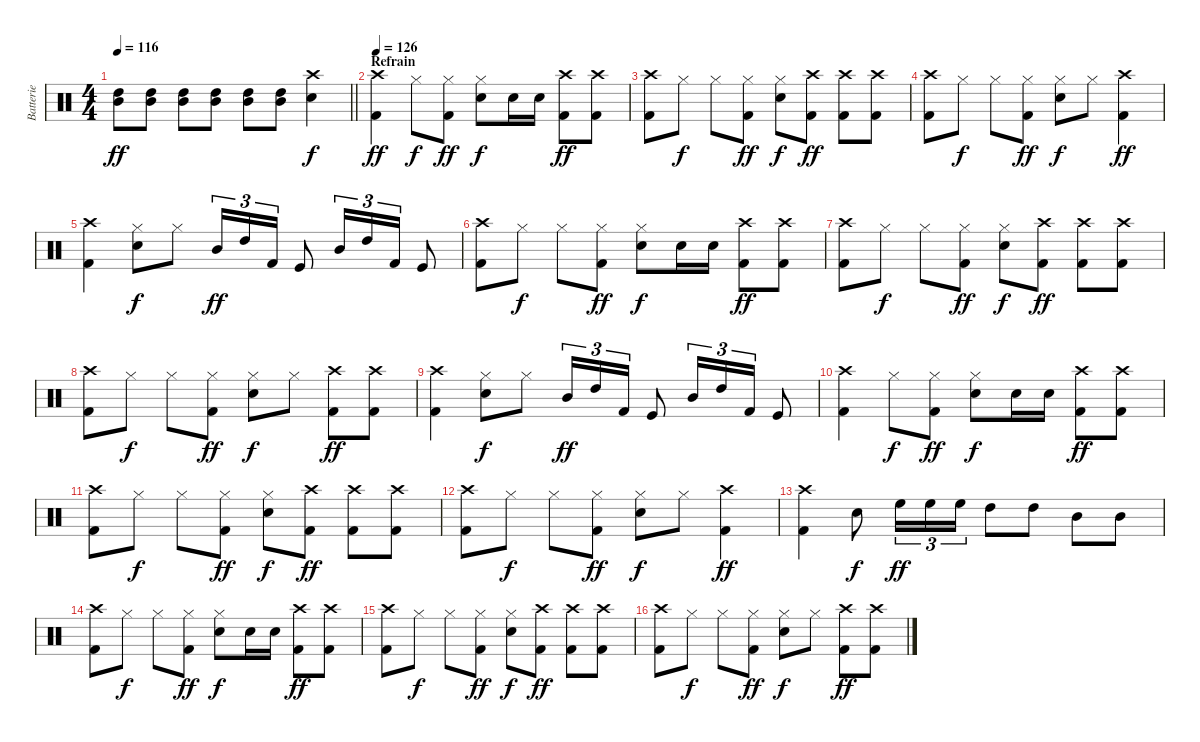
\track ("Batterie" "Batterie") {instrument percussion}
\staff {score}
\articulation defaults
\ts (4 4)
\tempo 116
\clef neutral
\barLineRight lightlight
\ks c
("Mid Tom (hit)" "High Tom (hit)").8{dy ff} ("Mid Tom (hit)" "High Tom (hit)").8 ("Mid Tom (hit)" "High Tom (hit)").8 ("Mid Tom (hit)" "High Tom (hit)").8 ("Mid Tom (hit)" "High Tom (hit)").8 ("Mid Tom (hit)" "High Tom (hit)").8 ("Crash high (hit)" "Snare (hit) 2").4{dy f} |
\section ("" "Refrain")
\tempo 126
("Crash high (hit)" "Kick (hit) 2").4{dy ff} "Hi-Hat (closed)".8{dy f} ("Hi-Hat (closed)" "Kick (hit) 2").8{dy ff} ("Hi-Hat (closed)" "Snare (hit) 2").8{dy f} "Snare (hit) 2".16 "Snare (hit) 2".16 ("Crash high (hit)" "Kick (hit) 2").8{dy ff} ("Crash high (hit)" "Kick (hit) 2").8 |
("Crash high (hit)" "Kick (hit) 2").8 "Hi-Hat (closed)".8{dy f} "Hi-Hat (closed)".8 ("Hi-Hat (closed)" "Kick (hit) 2").8{dy ff} ("Hi-Hat (closed)" "Snare (hit) 2").8{dy f} ("Crash high (hit)" "Kick (hit) 2").8{dy ff} ("Crash high (hit)" "Kick (hit) 2").8 ("Crash high (hit)" "Kick (hit) 2").8 |
("Crash high (hit)" "Kick (hit) 2").8 "Hi-Hat (closed)".8{dy f} "Hi-Hat (closed)".8 ("Hi-Hat (closed)" "Kick (hit) 2").8{dy ff} ("Hi-Hat (closed)" "Snare (hit) 2").8{dy f} "Hi-Hat (closed)".8 ("Crash high (hit)" "Kick (hit) 2").4{dy ff} |
("Crash high (hit)" "Kick (hit) 2").4 ("Hi-Hat (closed)" "Snare (hit) 2").8{dy f} "Hi-Hat (closed)".8 "Mid Tom (hit)".16{tu (3 2) dy ff} "High Tom (hit)".16{tu (3 2)} "Kick (hit) 2".16{tu (3 2)} "Kick (hit)".8 "Mid Tom (hit)".16{tu (3 2)} "High Tom (hit)".16{tu (3 2)} "Kick (hit) 2".16{tu (3 2)} "Kick (hit)".8 |
("Crash high (hit)" "Kick (hit) 2").8 "Hi-Hat (closed)".8{dy f} "Hi-Hat (closed)".8 ("Hi-Hat (closed)" "Kick (hit) 2").8{dy ff} ("Hi-Hat (closed)" "Snare (hit) 2").8{dy f} "Snare (hit) 2".16 "Snare (hit) 2".16 ("Crash high (hit)" "Kick (hit) 2").8{dy ff} ("Crash high (hit)" "Kick (hit) 2").8 |
("Crash high (hit)" "Kick (hit) 2").8 "Hi-Hat (closed)".8{dy f} "Hi-Hat (closed)".8 ("Hi-Hat (closed)" "Kick (hit) 2").8{dy ff} ("Hi-Hat (closed)" "Snare (hit) 2").8{dy f} ("Crash high (hit)" "Kick (hit) 2").8{dy ff} ("Crash high (hit)" "Kick (hit) 2").8 ("Crash high (hit)" "Kick (hit) 2").8 |
("Crash high (hit)" "Kick (hit) 2").8 "Hi-Hat (closed)".8{dy f} "Hi-Hat (closed)".8 ("Hi-Hat (closed)" "Kick (hit) 2").8{dy ff} ("Hi-Hat (closed)" "Snare (hit) 2").8{dy f} "Hi-Hat (closed)".8 ("Crash high (hit)" "Kick (hit) 2").8{dy ff} ("Crash high (hit)" "Kick (hit) 2").8 |
("Crash high (hit)" "Kick (hit) 2").4 ("Hi-Hat (closed)" "Snare (hit) 2").8{dy f} "Hi-Hat (closed)".8 "Mid Tom (hit)".16{tu (3 2) dy ff} "High Tom (hit)".16{tu (3 2)} "Kick (hit) 2".16{tu (3 2)} "Kick (hit)".8 "Mid Tom (hit)".16{tu (3 2)} "High Tom (hit)".16{tu (3 2)} "Kick (hit) 2".16{tu (3 2)} "Kick (hit)".8 |
("Crash high (hit)" "Kick (hit) 2").4 "Hi-Hat (closed)".8{dy f} ("Hi-Hat (closed)" "Kick (hit) 2").8{dy ff} ("Hi-Hat (closed)" "Snare (hit) 2").8{dy f} "Snare (hit) 2".16 "Snare (hit) 2".16 ("Crash high (hit)" "Kick (hit) 2").8{dy ff} ("Crash high (hit)" "Kick (hit) 2").8 |
("Crash high (hit)" "Kick (hit) 2").8 "Hi-Hat (closed)".8{dy f} "Hi-Hat (closed)".8 ("Hi-Hat (closed)" "Kick (hit) 2").8{dy ff} ("Hi-Hat (closed)" "Snare (hit) 2").8{dy f} ("Crash high (hit)" "Kick (hit) 2").8{dy ff} ("Crash high (hit)" "Kick (hit) 2").8 ("Crash high (hit)" "Kick (hit) 2").8 |
("Crash high (hit)" "Kick (hit) 2").8 "Hi-Hat (closed)".8{dy f} "Hi-Hat (closed)".8 ("Hi-Hat (closed)" "Kick (hit) 2").8{dy ff} ("Hi-Hat (closed)" "Snare (hit) 2").8{dy f} "Hi-Hat (closed)".8 ("Crash high (hit)" "Kick (hit) 2").4{dy ff} |
("Crash high (hit)" "Kick (hit) 2").4 "Snare (hit) 2".8{dy f} "High Floor Tom (hit)".16{tu (3 2) dy ff} "High Floor Tom (hit)".16{tu (3 2)} "High Floor Tom (hit)".16{tu (3 2)} "High Tom (hit)".8 "High Tom (hit)".8 "Mid Tom (hit)".8 "Mid Tom (hit)".8 |
("Crash high (hit)" "Kick (hit) 2").8 "Hi-Hat (closed)".8{dy f} "Hi-Hat (closed)".8 ("Hi-Hat (closed)" "Kick (hit) 2").8{dy ff} ("Hi-Hat (closed)" "Snare (hit) 2").8{dy f} "Snare (hit) 2".16 "Snare (hit) 2".16 ("Crash high (hit)" "Kick (hit) 2").8{dy ff} ("Crash high (hit)" "Kick (hit) 2").8 |
("Crash high (hit)" "Kick (hit) 2").8 "Hi-Hat (closed)".8{dy f} "Hi-Hat (closed)".8 ("Hi-Hat (closed)" "Kick (hit) 2").8{dy ff} ("Hi-Hat (closed)" "Snare (hit) 2").8{dy f} ("Crash high (hit)" "Kick (hit) 2").8{dy ff} ("Crash high (hit)" "Kick (hit) 2").8 ("Crash high (hit)" "Kick (hit) 2").8 |
("Crash high (hit)" "Kick (hit) 2").8 "Hi-Hat (closed)".8{dy f} "Hi-Hat (closed)".8 ("Hi-Hat (closed)" "Kick (hit) 2").8{dy ff} ("Hi-Hat (closed)" "Snare (hit) 2").8{dy f} "Hi-Hat (closed)".8 ("Crash high (hit)" "Kick (hit) 2").8{dy ff} ("Crash high (hit)" "Kick (hit) 2").8
